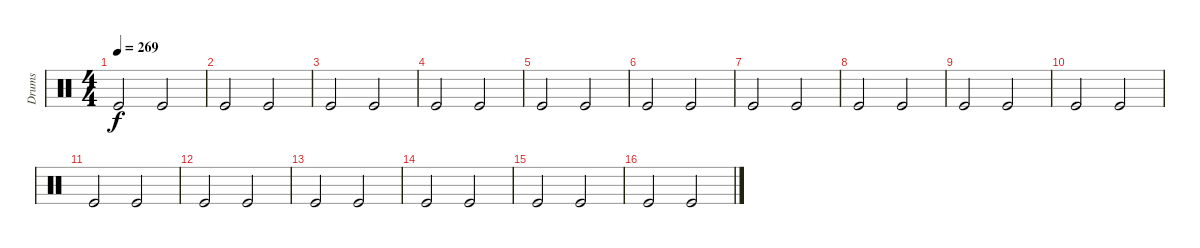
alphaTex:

\track ("Drums" "Drums") {instrument percussion}
\staff {score}
\articulation defaults
\ts (4 4)
\tempo 269
\clef neutral
\ks c "Kick (hit)".2{dy f} "Kick (hit)".2
|
"Kick (hit)".2 "Kick (hit)".2 |
"Kick (hit)".2 "Kick (hit)".2 |
"Kick (hit)".2 "Kick (hit)".2 |
"Kick (hit)".2 "Kick (hit)".2 |
"Kick (hit)".2 "Kick (hit)".2 |
"Kick (hit)".2 "Kick (hit)".2 |
"Kick (hit)".2 "Kick (hit)".2 |
"Kick (hit)".2 "Kick (hit)".2 |
"Kick (hit)".2 "Kick (hit)".2 |
"Kick (hit)".2 "Kick (hit)".2 |
"Kick (hit)".2 "Kick (hit)".2 |
"Kick (hit)".2 "Kick (hit)".2 |
"Kick (hit)".2 "Kick (hit)".2 |
"Kick (hit)".2 "Kick (hit)".2 |
"Kick (hit)".2 "Kick (hit)".2
